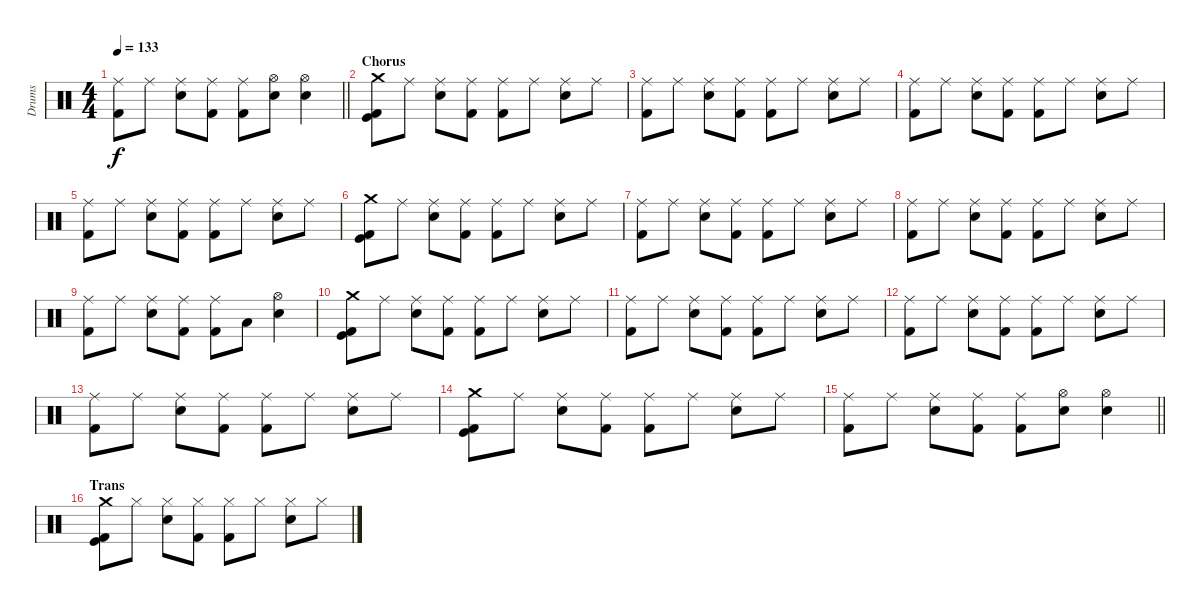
\track ("Drums" "Drums") {instrument percussion}
\staff {score}
\articulation defaults
\ts (4 4)
\tempo 133
\clef neutral
\barLineRight lightlight
\ks c
("Ride (middle)" "Kick (hit) 2").8{dy f} "Ride (middle)".8 ("Ride (middle)" "Electric Snare (hit)").8 ("Ride (middle)" "Kick (hit) 2").8 ("Ride (middle)" "Kick (hit) 2").8 ("Hi-Hat (open)" "Electric Snare (hit)").8 ("Hi-Hat (open)" "Electric Snare (hit)").4 |
\section ("" "Chorus")
("Crash medium (hit)" "Kick (hit) 2" "Kick (hit)").8 "Ride (middle)".8 ("Ride (middle)" "Electric Snare (hit)").8 ("Ride (middle)" "Kick (hit) 2").8 ("Ride (middle)" "Kick (hit) 2").8 "Ride (middle)".8 ("Ride (middle)" "Electric Snare (hit)").8 "Ride (middle)".8 |
("Ride (middle)" "Kick (hit) 2").8 "Ride (middle)".8 ("Ride (middle)" "Electric Snare (hit)").8 ("Ride (middle)" "Kick (hit) 2").8 ("Ride (middle)" "Kick (hit) 2").8 "Ride (middle)".8 ("Ride (middle)" "Electric Snare (hit)").8 "Ride (middle)".8 |
("Ride (middle)" "Kick (hit) 2").8 "Ride (middle)".8 ("Ride (middle)" "Electric Snare (hit)").8 ("Ride (middle)" "Kick (hit) 2").8 ("Ride (middle)" "Kick (hit) 2").8 "Ride (middle)".8 ("Ride (middle)" "Electric Snare (hit)").8 "Ride (middle)".8 |
("Ride (middle)" "Kick (hit) 2").8 "Ride (middle)".8 ("Ride (middle)" "Electric Snare (hit)").8 ("Ride (middle)" "Kick (hit) 2").8 ("Ride (middle)" "Kick (hit) 2").8 "Ride (middle)".8 ("Ride (middle)" "Electric Snare (hit)").8 "Ride (middle)".8 |
("Crash medium (hit)" "Kick (hit) 2" "Kick (hit)").8 "Ride (middle)".8 ("Ride (middle)" "Electric Snare (hit)").8 ("Ride (middle)" "Kick (hit) 2").8 ("Ride (middle)" "Kick (hit) 2").8 "Ride (middle)".8 ("Ride (middle)" "Electric Snare (hit)").8 "Ride (middle)".8 |
("Ride (middle)" "Kick (hit) 2").8 "Ride (middle)".8 ("Ride (middle)" "Electric Snare (hit)").8 ("Ride (middle)" "Kick (hit) 2").8 ("Ride (middle)" "Kick (hit) 2").8 "Ride (middle)".8 ("Ride (middle)" "Electric Snare (hit)").8 "Ride (middle)".8 |
("Ride (middle)" "Kick (hit) 2").8 "Ride (middle)".8 ("Ride (middle)" "Electric Snare (hit)").8 ("Ride (middle)" "Kick (hit) 2").8 ("Ride (middle)" "Kick (hit) 2").8 "Ride (middle)".8 ("Ride (middle)" "Electric Snare (hit)").8 "Ride (middle)".8 |
("Ride (middle)" "Kick (hit) 2").8 "Ride (middle)".8 ("Ride (middle)" "Electric Snare (hit)").8 ("Ride (middle)" "Kick (hit) 2").8 ("Ride (middle)" "Kick (hit) 2").8 "Low Tom (hit)".8 ("Hi-Hat (open)" "Electric Snare (hit)").4 |
("Crash medium (hit)" "Kick (hit) 2" "Kick (hit)").8 "Ride (middle)".8 ("Ride (middle)" "Electric Snare (hit)").8 ("Ride (middle)" "Kick (hit) 2").8 ("Ride (middle)" "Kick (hit) 2").8 "Ride (middle)".8 ("Ride (middle)" "Electric Snare (hit)").8 "Ride (middle)".8 |
("Ride (middle)" "Kick (hit) 2").8 "Ride (middle)".8 ("Ride (middle)" "Electric Snare (hit)").8 ("Ride (middle)" "Kick (hit) 2").8 ("Ride (middle)" "Kick (hit) 2").8 "Ride (middle)".8 ("Ride (middle)" "Electric Snare (hit)").8 "Ride (middle)".8 |
("Ride (middle)" "Kick (hit) 2").8 "Ride (middle)".8 ("Ride (middle)" "Electric Snare (hit)").8 ("Ride (middle)" "Kick (hit) 2").8 ("Ride (middle)" "Kick (hit) 2").8 "Ride (middle)".8 ("Ride (middle)" "Electric Snare (hit)").8 "Ride (middle)".8 |
("Ride (middle)" "Kick (hit) 2").8 "Ride (middle)".8 ("Ride (middle)" "Electric Snare (hit)").8 ("Ride (middle)" "Kick (hit) 2").8 ("Ride (middle)" "Kick (hit) 2").8 "Ride (middle)".8 ("Ride (middle)" "Electric Snare (hit)").8 "Ride (middle)".8 |
("Crash medium (hit)" "Kick (hit) 2" "Kick (hit)").8 "Ride (middle)".8 ("Ride (middle)" "Electric Snare (hit)").8 ("Ride (middle)" "Kick (hit) 2").8 ("Ride (middle)" "Kick (hit) 2").8 "Ride (middle)".8 ("Ride (middle)" "Electric Snare (hit)").8 "Ride (middle)".8 |
\barLineRight lightlight
("Ride (middle)" "Kick (hit) 2").8 "Ride (middle)".8 ("Ride (middle)" "Electric Snare (hit)").8 ("Ride (middle)" "Kick (hit) 2").8 ("Ride (middle)" "Kick (hit) 2").8 ("Hi-Hat (open)" "Electric Snare (hit)").8 ("Hi-Hat (open)" "Electric Snare (hit)").4 |
\section ("" "Trans")
("Crash medium (hit)" "Kick (hit) 2" "Kick (hit)").8 "Hi-Hat (closed)".8 ("Hi-Hat (closed)" "Electric Snare (hit)").8 ("Hi-Hat (closed)" "Kick (hit) 2").8 ("Hi-Hat (closed)" "Kick (hit) 2").8 "Hi-Hat (closed)".8 ("Hi-Hat (closed)" "Electric Snare (hit)").8 "Hi-Hat (closed)".8
